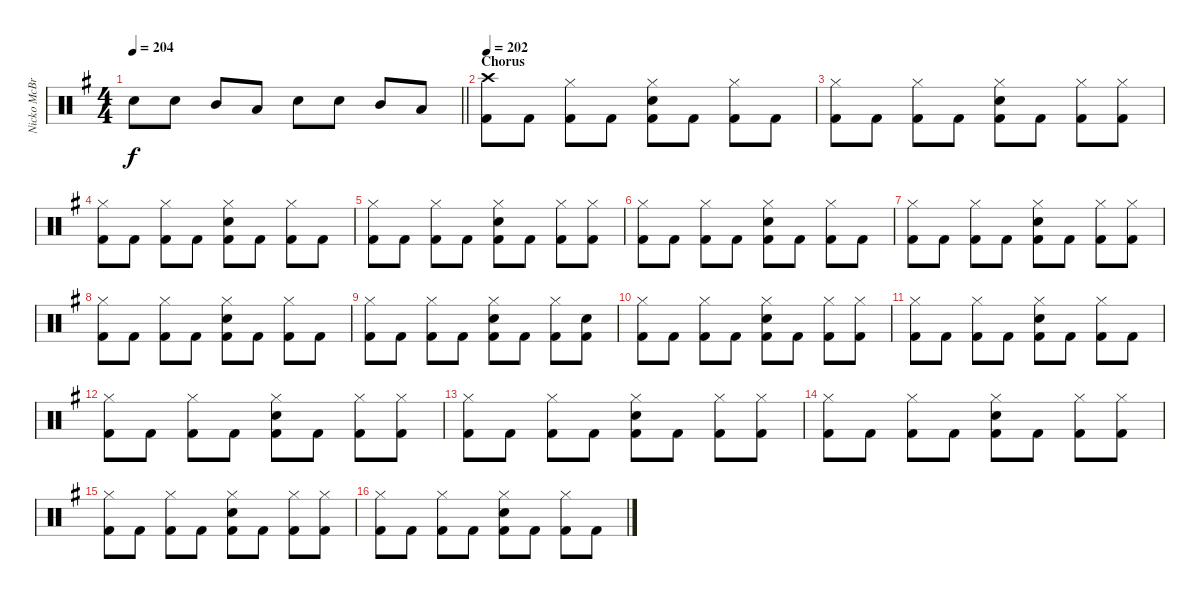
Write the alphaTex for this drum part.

\track ("Nicko McBrain (Drums)" "Nicko McBr") {instrument percussion}
\staff {score}
\articulation defaults
\ts (4 4)
\tempo 204
\clef neutral
\barLineRight lightlight
\ks eminor "Snare (hit) 2".8{dy f} "Snare (hit) 2".8 "Mid Tom (hit)".8 "Low Tom (hit)".8 "Snare (hit) 2".8 "Snare (hit) 2".8 "Mid Tom (hit)".8 "Low Tom (hit)".8
|
\section ("" "Chorus")
\tempo 202
("Crash high (hit)" "Kick (hit) 2").8 "Kick (hit) 2".8 ("Hi-Hat (closed)" "Kick (hit) 2").8 "Kick (hit) 2".8 ("Hi-Hat (closed)" "Snare (hit) 2" "Kick (hit) 2").8 "Kick (hit) 2".8 ("Hi-Hat (closed)" "Kick (hit) 2").8 "Kick (hit) 2".8 |
("Hi-Hat (closed)" "Kick (hit) 2").8 "Kick (hit) 2".8 ("Hi-Hat (closed)" "Kick (hit) 2").8 "Kick (hit) 2".8 ("Hi-Hat (closed)" "Snare (hit) 2" "Kick (hit) 2").8 "Kick (hit) 2".8 ("Hi-Hat (closed)" "Kick (hit) 2").8 ("Hi-Hat (closed)" "Kick (hit) 2").8 |
("Hi-Hat (closed)" "Kick (hit) 2").8 "Kick (hit) 2".8 ("Hi-Hat (closed)" "Kick (hit) 2").8 "Kick (hit) 2".8 ("Hi-Hat (closed)" "Snare (hit) 2" "Kick (hit) 2").8 "Kick (hit) 2".8 ("Hi-Hat (closed)" "Kick (hit) 2").8 "Kick (hit) 2".8 |
("Hi-Hat (closed)" "Kick (hit) 2").8 "Kick (hit) 2".8 ("Hi-Hat (closed)" "Kick (hit) 2").8 "Kick (hit) 2".8 ("Hi-Hat (closed)" "Snare (hit) 2" "Kick (hit) 2").8 "Kick (hit) 2".8 ("Hi-Hat (closed)" "Kick (hit) 2").8 ("Hi-Hat (closed)" "Kick (hit) 2").8 |
("Hi-Hat (closed)" "Kick (hit) 2").8 "Kick (hit) 2".8 ("Hi-Hat (closed)" "Kick (hit) 2").8 "Kick (hit) 2".8 ("Hi-Hat (closed)" "Snare (hit) 2" "Kick (hit) 2").8 "Kick (hit) 2".8 ("Hi-Hat (closed)" "Kick (hit) 2").8 "Kick (hit) 2".8 |
("Hi-Hat (closed)" "Kick (hit) 2").8 "Kick (hit) 2".8 ("Hi-Hat (closed)" "Kick (hit) 2").8 "Kick (hit) 2".8 ("Hi-Hat (closed)" "Snare (hit) 2" "Kick (hit) 2").8 "Kick (hit) 2".8 ("Hi-Hat (closed)" "Kick (hit) 2").8 ("Hi-Hat (closed)" "Kick (hit) 2").8 |
("Hi-Hat (closed)" "Kick (hit) 2").8 "Kick (hit) 2".8 ("Hi-Hat (closed)" "Kick (hit) 2").8 "Kick (hit) 2".8 ("Hi-Hat (closed)" "Snare (hit) 2" "Kick (hit) 2").8 "Kick (hit) 2".8 ("Hi-Hat (closed)" "Kick (hit) 2").8 "Kick (hit) 2".8 |
("Hi-Hat (closed)" "Kick (hit) 2").8 "Kick (hit) 2".8 ("Hi-Hat (closed)" "Kick (hit) 2").8 "Kick (hit) 2".8 ("Hi-Hat (closed)" "Snare (hit) 2" "Kick (hit) 2").8 "Kick (hit) 2".8 ("Hi-Hat (closed)" "Kick (hit) 2").8 ("Snare (hit) 2" "Kick (hit) 2").8 |
("Hi-Hat (closed)" "Kick (hit) 2").8 "Kick (hit) 2".8 ("Hi-Hat (closed)" "Kick (hit) 2").8 "Kick (hit) 2".8 ("Hi-Hat (closed)" "Snare (hit) 2" "Kick (hit) 2").8 "Kick (hit) 2".8 ("Hi-Hat (closed)" "Kick (hit) 2").8 ("Hi-Hat (closed)" "Kick (hit) 2").8 |
("Hi-Hat (closed)" "Kick (hit) 2").8 "Kick (hit) 2".8 ("Hi-Hat (closed)" "Kick (hit) 2").8 "Kick (hit) 2".8 ("Hi-Hat (closed)" "Snare (hit) 2" "Kick (hit) 2").8 "Kick (hit) 2".8 ("Hi-Hat (closed)" "Kick (hit) 2").8 "Kick (hit) 2".8 |
("Hi-Hat (closed)" "Kick (hit) 2").8 "Kick (hit) 2".8 ("Hi-Hat (closed)" "Kick (hit) 2").8 "Kick (hit) 2".8 ("Hi-Hat (closed)" "Snare (hit) 2" "Kick (hit) 2").8 "Kick (hit) 2".8 ("Hi-Hat (closed)" "Kick (hit) 2").8 ("Hi-Hat (closed)" "Kick (hit) 2").8 |
("Hi-Hat (closed)" "Kick (hit) 2").8 "Kick (hit) 2".8 ("Hi-Hat (closed)" "Kick (hit) 2").8 "Kick (hit) 2".8 ("Hi-Hat (closed)" "Snare (hit) 2" "Kick (hit) 2").8 "Kick (hit) 2".8 ("Hi-Hat (closed)" "Kick (hit) 2").8 ("Hi-Hat (closed)" "Kick (hit) 2").8 |
("Hi-Hat (closed)" "Kick (hit) 2").8 "Kick (hit) 2".8 ("Hi-Hat (closed)" "Kick (hit) 2").8 "Kick (hit) 2".8 ("Hi-Hat (closed)" "Snare (hit) 2" "Kick (hit) 2").8 "Kick (hit) 2".8 ("Hi-Hat (closed)" "Kick (hit) 2").8 ("Hi-Hat (closed)" "Kick (hit) 2").8 |
("Hi-Hat (closed)" "Kick (hit) 2").8 "Kick (hit) 2".8 ("Hi-Hat (closed)" "Kick (hit) 2").8 "Kick (hit) 2".8 ("Hi-Hat (closed)" "Snare (hit) 2" "Kick (hit) 2").8 "Kick (hit) 2".8 ("Hi-Hat (closed)" "Kick (hit) 2").8 ("Hi-Hat (closed)" "Kick (hit) 2").8 |
("Hi-Hat (closed)" "Kick (hit) 2").8 "Kick (hit) 2".8 ("Hi-Hat (closed)" "Kick (hit) 2").8 "Kick (hit) 2".8 ("Hi-Hat (closed)" "Snare (hit) 2" "Kick (hit) 2").8 "Kick (hit) 2".8 ("Hi-Hat (closed)" "Kick (hit) 2").8 "Kick (hit) 2".8
